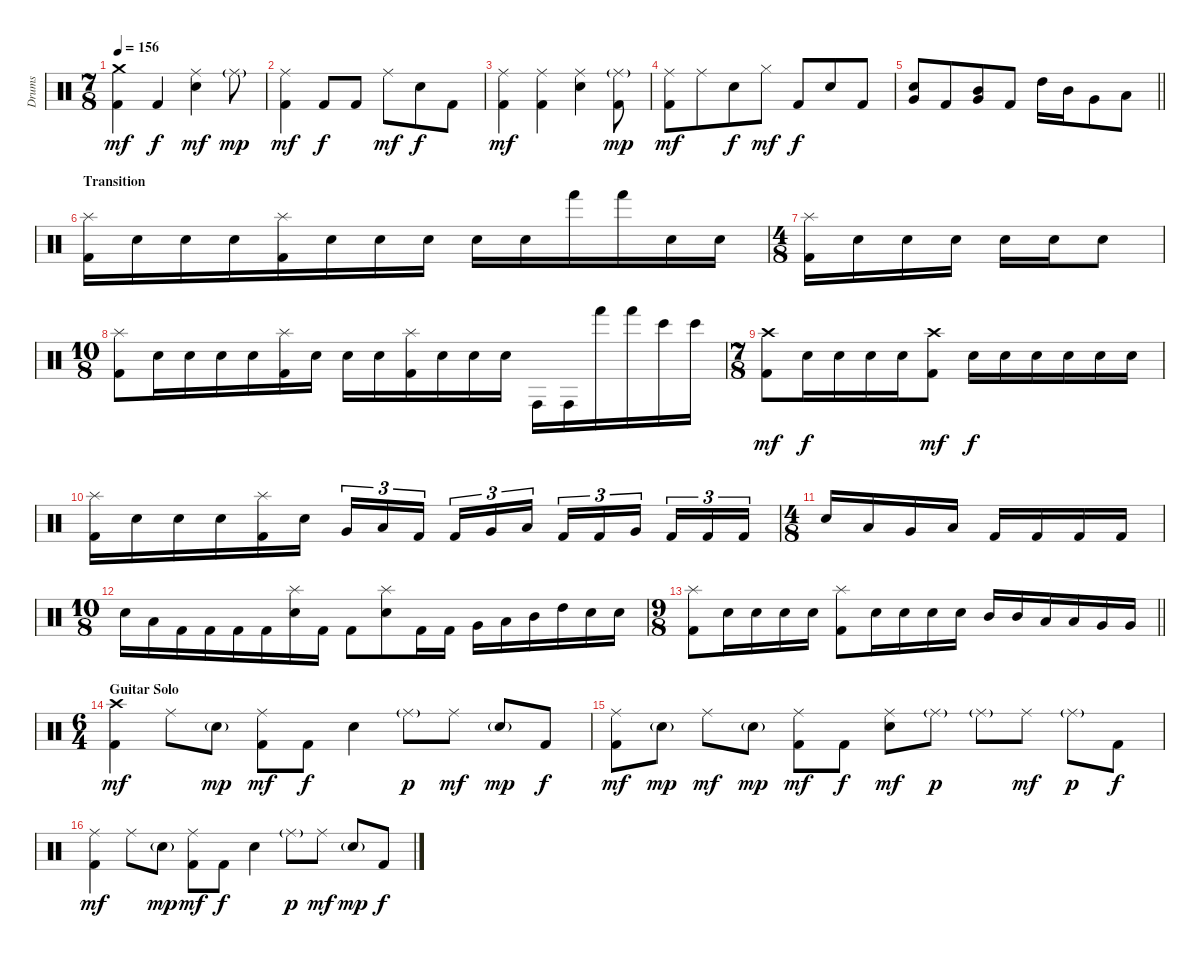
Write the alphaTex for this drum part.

\track ("Drums" "Drums") {instrument percussion}
\staff {score}
\articulation defaults
\ts (7 8)
\tempo 156
\clef neutral
\ks c
("Crash medium (hit)" "Kick (hit) 2").4{dy mf} "Kick (hit) 2".4{dy f} ("Ride (middle)" "Electric Snare (hit)").4{dy mf} "Ride (middle)"{g}.8{dy mp} |
("Ride (middle)" "Kick (hit) 2").4{dy mf} "Kick (hit) 2".8{dy f} "Kick (hit) 2".8 "Ride (middle)".8{dy mf} "Electric Snare (hit)".8{dy f} "Kick (hit) 2".8 |
("Ride (middle)" "Kick (hit) 2").4{dy mf} ("Ride (middle)" "Kick (hit) 2").4 ("Ride (middle)" "Electric Snare (hit)").4 ("Ride (middle)"{g} "Kick (hit) 2").8{dy mp} |
("Ride (middle)" "Kick (hit) 2").8{dy mf} "Ride (middle)".8 "Electric Snare (hit)".8{dy f} "Hi-Hat (closed)".8{dy mf} "Kick (hit) 2".8{dy f} "Electric Snare (hit)".8 "Kick (hit) 2".8 |
\barLineRight lightlight
("Very Low Tom (hit)" "Electric Snare (hit)").8 "Kick (hit) 2".8 ("Mid Tom (hit)" "Very Low Tom (hit)").8 "Kick (hit) 2".8 "High Tom (hit)".16 "Mid Tom (hit)".16 "Very Low Tom (hit)".8 "Low Floor Tom (hit)".8 |
\section ("" "Transition")
("Splash (hit)" "Kick (hit) 2").16 "Electric Snare (hit)".16 "Electric Snare (hit)".16 "Electric Snare (hit)".16 ("Splash (hit)" "Kick (hit) 2").16 "Electric Snare (hit)".16 "Electric Snare (hit)".16 "Electric Snare (hit)".16 "Electric Snare (hit)".16 "Electric Snare (hit)".16 "Hand (hit)".16 "Hand (hit)".16 "Electric Snare (hit)".16 "Electric Snare (hit)".16 |
\ts (4 8)
("Splash (hit)" "Kick (hit) 2").16 "Electric Snare (hit)".16 "Electric Snare (hit)".16 "Electric Snare (hit)".16 "Electric Snare (hit)".16 "Electric Snare (hit)".16 "Electric Snare (hit)".8 |
\ts (10 8)
("Splash (hit)" "Kick (hit) 2").8 "Electric Snare (hit)".16 "Electric Snare (hit)".16 "Electric Snare (hit)".16 "Electric Snare (hit)".16 ("Splash (hit)" "Kick (hit) 2").16 "Electric Snare (hit)".16 "Electric Snare (hit)".16 "Electric Snare (hit)".16 ("Splash (hit)" "Kick (hit) 2").16 "Electric Snare (hit)".16 "Electric Snare (hit)".16 "Electric Snare (hit)".16 "Conga high (hit)".16 "Conga high (hit)".16 "Hand (hit)".16 "Hand (hit)".16 "Bongo High (hit)".16 "Bongo High (hit)".16 |
\ts (7 8)
("Crash high (hit)" "Kick (hit) 2").8{dy mf} "Electric Snare (hit)".16{dy f} "Electric Snare (hit)".16 "Electric Snare (hit)".16 "Electric Snare (hit)".16 ("Crash high (hit)" "Kick (hit) 2").8{dy mf} "Electric Snare (hit)".16{dy f} "Electric Snare (hit)".16 "Electric Snare (hit)".16 "Electric Snare (hit)".16 "Electric Snare (hit)".16 "Electric Snare (hit)".16 |
("Splash (hit)" "Kick (hit) 2").16 "Electric Snare (hit)".16 "Electric Snare (hit)".16 "Electric Snare (hit)".16 ("Splash (hit)" "Kick (hit) 2").16 "Electric Snare (hit)".16 "Very Low Tom (hit)".16{tu (3 2)} "Low Tom (hit)".16{tu (3 2)} "Kick (hit) 2".16{tu (3 2)} "Kick (hit) 2".16{tu (3 2)} "Very Low Tom (hit)".16{tu (3 2)} "Low Tom (hit)".16{tu (3 2)} "Kick (hit) 2".16{tu (3 2)} "Kick (hit) 2".16{tu (3 2)} "Very Low Tom (hit)".16{tu (3 2)} "Kick (hit) 2".16{tu (3 2)} "Kick (hit) 2".16{tu (3 2)} "Kick (hit) 2".16{tu (3 2)} |
\ts (4 8)
"Electric Snare (hit)".16 "Low Tom (hit)".16 "Very Low Tom (hit)".16 "Low Floor Tom (hit)".16 "Kick (hit) 2".16 "Kick (hit) 2".16 "Kick (hit) 2".16 "Kick (hit) 2".16 |
\ts (10 8)
"Electric Snare (hit)".16 "Low Floor Tom (hit)".16 "Kick (hit) 2".16 "Kick (hit) 2".16 "Kick (hit) 2".16 "Kick (hit) 2".16 ("Splash (hit)" "Electric Snare (hit)").16 "Kick (hit) 2".16 "Kick (hit) 2".8 ("Splash (hit)" "Electric Snare (hit)").8 "Kick (hit) 2".16 "Kick (hit) 2".16 "Very Low Tom (hit)".16 "Low Tom (hit)".16 "Mid Tom (hit)".16 "High Tom (hit)".16 "Electric Snare (hit)".16 "Electric Snare (hit)".16 |
\ts (9 8)
\barLineRight lightlight
("Splash (hit)" "Kick (hit) 2").8 "Electric Snare (hit)".16 "Electric Snare (hit)".16 "Electric Snare (hit)".16 "Electric Snare (hit)".16 ("Splash (hit)" "Kick (hit) 2").8 "Electric Snare (hit)".16 "Electric Snare (hit)".16 "Electric Snare (hit)".16 "Electric Snare (hit)".16 "Mid Tom (hit)".16 "Mid Tom (hit)".16 "Low Tom (hit)".16 "Low Tom (hit)".16 "Very Low Tom (hit)".16 "Very Low Tom (hit)".16 |
\ts (6 4)
\section ("" "Guitar Solo")
("Crash high (hit)" "Kick (hit) 2").4{dy mf} "Ride (middle)".8 "Electric Snare (hit)"{g}.8{dy mp} ("Ride (middle)" "Kick (hit) 2").8{dy mf} "Kick (hit) 2".8{dy f} "Electric Snare (hit)".4 "Ride (middle)"{g}.8{dy p} "Ride (middle)".8{dy mf} "Electric Snare (hit)"{g}.8{dy mp} "Kick (hit) 2".8{dy f} |
("Ride (middle)" "Kick (hit) 2").8{dy mf} "Electric Snare (hit)"{g}.8{dy mp} "Ride (middle)".8{dy mf} "Electric Snare (hit)"{g}.8{dy mp} ("Ride (middle)" "Kick (hit) 2").8{dy mf} "Kick (hit) 2".8{dy f} ("Ride (middle)" "Electric Snare (hit)").8{dy mf} "Ride (middle)"{g}.8{dy p} "Ride (middle)"{g}.8 "Ride (middle)".8{dy mf} "Ride (middle)"{g}.8{dy p} "Kick (hit) 2".8{dy f} |
("Ride (middle)" "Kick (hit) 2").4{dy mf} "Ride (middle)".8 "Electric Snare (hit)"{g}.8{dy mp} ("Ride (middle)" "Kick (hit) 2").8{dy mf} "Kick (hit) 2".8{dy f} "Electric Snare (hit)".4 "Ride (middle)"{g}.8{dy p} "Ride (middle)".8{dy mf} "Electric Snare (hit)"{g}.8{dy mp} "Kick (hit) 2".8{dy f}
